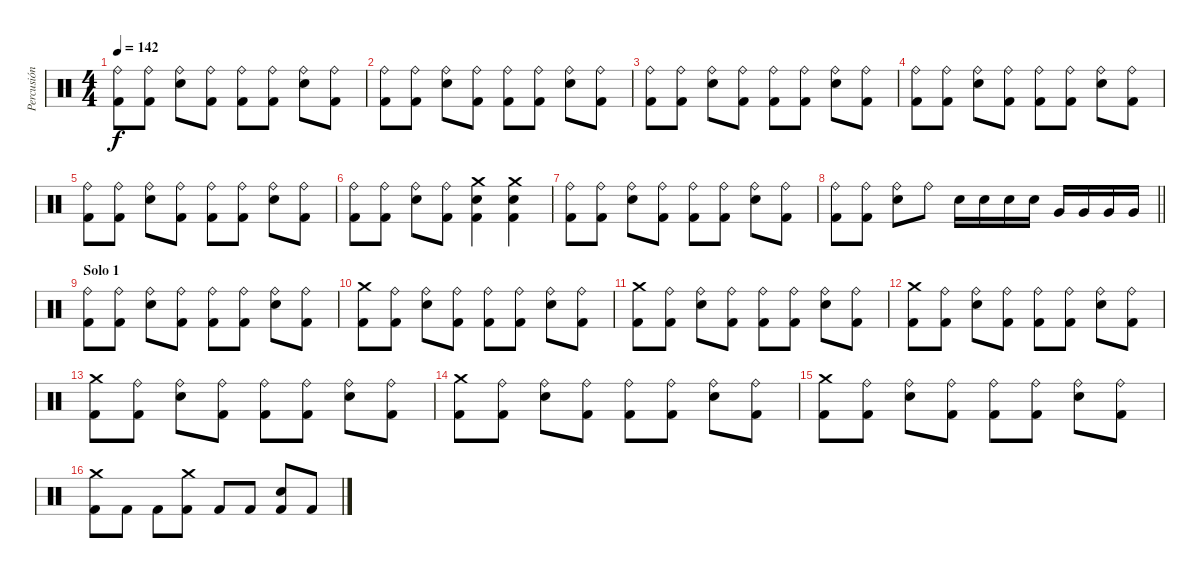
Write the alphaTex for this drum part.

\track ("Percusión" "Percusión") {instrument percussion}
\staff {score}
\articulation defaults
\ts (4 4)
\tempo 142
\clef neutral
\ks c
("Ride (bell)" "Kick (hit) 2").8{dy f} ("Ride (bell)" "Kick (hit) 2").8 ("Ride (bell)" "Electric Snare (hit)").8 ("Ride (bell)" "Kick (hit) 2").8 ("Ride (bell)" "Kick (hit) 2").8 ("Ride (bell)" "Kick (hit) 2").8 ("Ride (bell)" "Electric Snare (hit)").8 ("Ride (bell)" "Kick (hit) 2").8 |
("Ride (bell)" "Kick (hit) 2").8 ("Ride (bell)" "Kick (hit) 2").8 ("Ride (bell)" "Electric Snare (hit)").8 ("Ride (bell)" "Kick (hit) 2").8 ("Ride (bell)" "Kick (hit) 2").8 ("Ride (bell)" "Kick (hit) 2").8 ("Ride (bell)" "Electric Snare (hit)").8 ("Ride (bell)" "Kick (hit) 2").8 |
("Ride (bell)" "Kick (hit) 2").8 ("Ride (bell)" "Kick (hit) 2").8 ("Ride (bell)" "Electric Snare (hit)").8 ("Ride (bell)" "Kick (hit) 2").8 ("Ride (bell)" "Kick (hit) 2").8 ("Ride (bell)" "Kick (hit) 2").8 ("Ride (bell)" "Electric Snare (hit)").8 ("Ride (bell)" "Kick (hit) 2").8 |
("Ride (bell)" "Kick (hit) 2").8 ("Ride (bell)" "Kick (hit) 2").8 ("Ride (bell)" "Electric Snare (hit)").8 ("Ride (bell)" "Kick (hit) 2").8 ("Ride (bell)" "Kick (hit) 2").8 ("Ride (bell)" "Kick (hit) 2").8 ("Ride (bell)" "Electric Snare (hit)").8 ("Ride (bell)" "Kick (hit) 2").8 |
("Ride (bell)" "Kick (hit) 2").8 ("Ride (bell)" "Kick (hit) 2").8 ("Ride (bell)" "Electric Snare (hit)").8 ("Ride (bell)" "Kick (hit) 2").8 ("Ride (bell)" "Kick (hit) 2").8 ("Ride (bell)" "Kick (hit) 2").8 ("Ride (bell)" "Electric Snare (hit)").8 ("Ride (bell)" "Kick (hit) 2").8 |
("Ride (bell)" "Kick (hit) 2").8 ("Ride (bell)" "Kick (hit) 2").8 ("Ride (bell)" "Electric Snare (hit)").8 ("Ride (bell)" "Kick (hit) 2").8 ("Crash medium (hit)" "Electric Snare (hit)" "Kick (hit) 2").4 ("Crash medium (hit)" "Electric Snare (hit)" "Kick (hit) 2").4 |
("Ride (bell)" "Kick (hit) 2").8 ("Ride (bell)" "Kick (hit) 2").8 ("Ride (bell)" "Electric Snare (hit)").8 ("Ride (bell)" "Kick (hit) 2").8 ("Ride (bell)" "Kick (hit) 2").8 ("Ride (bell)" "Kick (hit) 2").8 ("Ride (bell)" "Electric Snare (hit)").8 ("Ride (bell)" "Kick (hit) 2").8 |
\barLineRight lightlight
("Ride (bell)" "Kick (hit) 2").8 ("Ride (bell)" "Kick (hit) 2").8 ("Ride (bell)" "Electric Snare (hit)").8 "Ride (bell)".8 "Electric Snare (hit)".16 "Electric Snare (hit)".16 "Electric Snare (hit)".16 "Electric Snare (hit)".16 "Very Low Tom (hit)".16 "Very Low Tom (hit)".16 "Very Low Tom (hit)".16 "Very Low Tom (hit)".16 |
\section ("" "Solo 1")
("Ride (bell)" "Kick (hit) 2").8 ("Ride (bell)" "Kick (hit) 2").8 ("Ride (bell)" "Electric Snare (hit)").8 ("Ride (bell)" "Kick (hit) 2").8 ("Ride (bell)" "Kick (hit) 2").8 ("Ride (bell)" "Kick (hit) 2").8 ("Ride (bell)" "Electric Snare (hit)").8 ("Ride (bell)" "Kick (hit) 2").8 |
("Crash medium (hit)" "Kick (hit) 2").8 ("Ride (bell)" "Kick (hit) 2").8 ("Ride (bell)" "Electric Snare (hit)").8 ("Ride (bell)" "Kick (hit) 2").8 ("Ride (bell)" "Kick (hit) 2").8 ("Ride (bell)" "Kick (hit) 2").8 ("Ride (bell)" "Electric Snare (hit)").8 ("Ride (bell)" "Kick (hit) 2").8 |
("Crash medium (hit)" "Kick (hit) 2").8 ("Ride (bell)" "Kick (hit) 2").8 ("Ride (bell)" "Electric Snare (hit)").8 ("Ride (bell)" "Kick (hit) 2").8 ("Ride (bell)" "Kick (hit) 2").8 ("Ride (bell)" "Kick (hit) 2").8 ("Ride (bell)" "Electric Snare (hit)").8 ("Ride (bell)" "Kick (hit) 2").8 |
("Crash medium (hit)" "Kick (hit) 2").8 ("Ride (bell)" "Kick (hit) 2").8 ("Ride (bell)" "Electric Snare (hit)").8 ("Ride (bell)" "Kick (hit) 2").8 ("Ride (bell)" "Kick (hit) 2").8 ("Ride (bell)" "Kick (hit) 2").8 ("Ride (bell)" "Electric Snare (hit)").8 ("Ride (bell)" "Kick (hit) 2").8 |
("Crash medium (hit)" "Kick (hit) 2").8 ("Ride (bell)" "Kick (hit) 2").8 ("Ride (bell)" "Electric Snare (hit)").8 ("Ride (bell)" "Kick (hit) 2").8 ("Ride (bell)" "Kick (hit) 2").8 ("Ride (bell)" "Kick (hit) 2").8 ("Ride (bell)" "Electric Snare (hit)").8 ("Ride (bell)" "Kick (hit) 2").8 |
("Crash medium (hit)" "Kick (hit) 2").8 ("Ride (bell)" "Kick (hit) 2").8 ("Ride (bell)" "Electric Snare (hit)").8 ("Ride (bell)" "Kick (hit) 2").8 ("Ride (bell)" "Kick (hit) 2").8 ("Ride (bell)" "Kick (hit) 2").8 ("Ride (bell)" "Electric Snare (hit)").8 ("Ride (bell)" "Kick (hit) 2").8 |
("Crash medium (hit)" "Kick (hit) 2").8 ("Ride (bell)" "Kick (hit) 2").8 ("Ride (bell)" "Electric Snare (hit)").8 ("Ride (bell)" "Kick (hit) 2").8 ("Ride (bell)" "Kick (hit) 2").8 ("Ride (bell)" "Kick (hit) 2").8 ("Ride (bell)" "Electric Snare (hit)").8 ("Ride (bell)" "Kick (hit) 2").8 |
("Crash medium (hit)" "Kick (hit) 2").8 "Kick (hit) 2".8 "Kick (hit) 2".8 ("Crash medium (hit)" "Kick (hit) 2").8 "Kick (hit) 2".8 "Kick (hit) 2".8 ("Electric Snare (hit)" "Kick (hit) 2").8 "Kick (hit) 2".8
